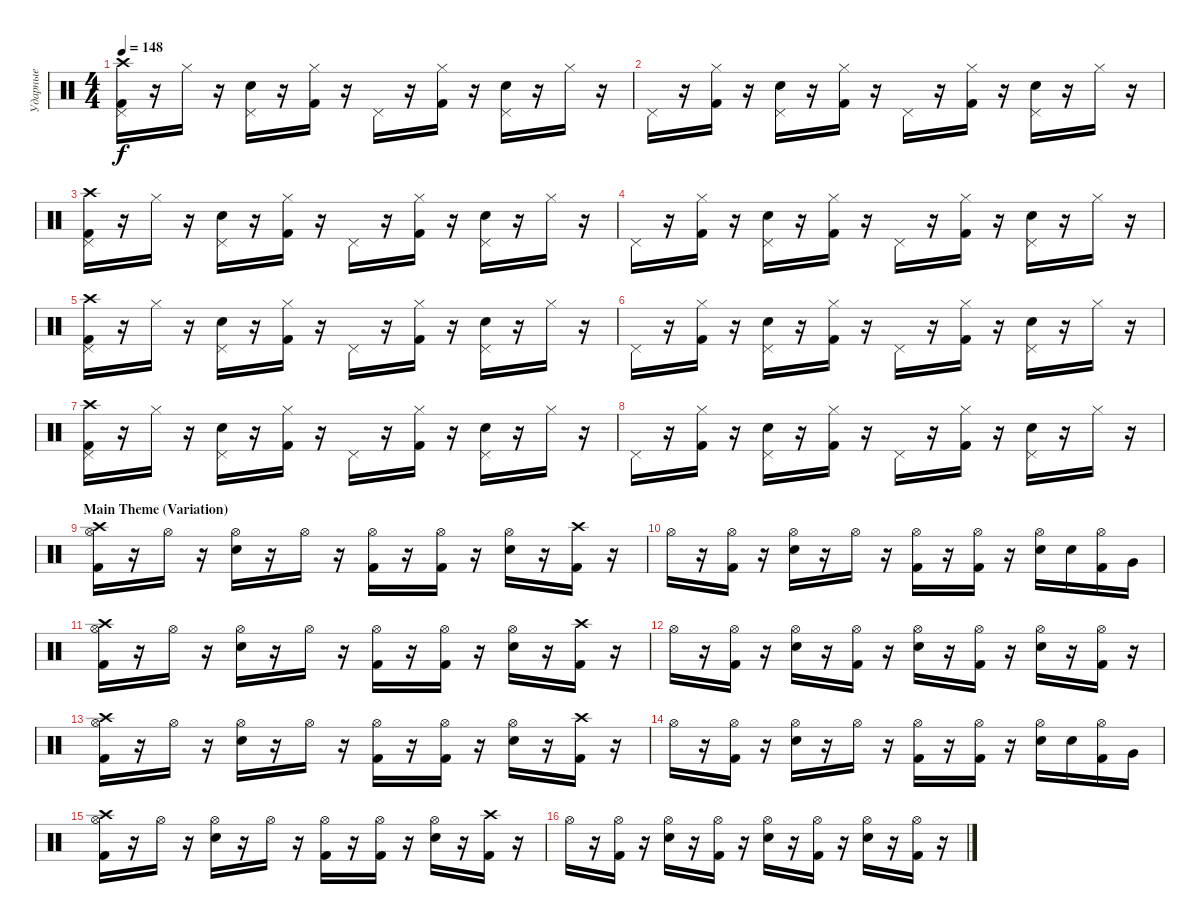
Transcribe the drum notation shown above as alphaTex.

\track ("Ударные" "Ударные") {instrument percussion}
\staff {score}
\articulation defaults
\ts (4 4)
\tempo 148
\clef neutral
\ks c
("Crash high (hit)" "Pedal Hi-Hat (hit)" "Kick (hit) 2").16{dy f} r.16 "Hi-Hat (closed)".16 r.16 ("Pedal Hi-Hat (hit)" "Electric Snare (hit)").16 r.16 ("Hi-Hat (closed)" "Kick (hit) 2").16 r.16 "Pedal Hi-Hat (hit)".16 r.16 ("Hi-Hat (closed)" "Kick (hit) 2").16 r.16 ("Pedal Hi-Hat (hit)" "Electric Snare (hit)").16 r.16 "Hi-Hat (closed)".16 r.16 |
"Pedal Hi-Hat (hit)".16 r.16 ("Hi-Hat (closed)" "Kick (hit) 2").16 r.16 ("Pedal Hi-Hat (hit)" "Electric Snare (hit)").16 r.16 ("Hi-Hat (closed)" "Kick (hit) 2").16 r.16 "Pedal Hi-Hat (hit)".16 r.16 ("Hi-Hat (closed)" "Kick (hit) 2").16 r.16 ("Pedal Hi-Hat (hit)" "Electric Snare (hit)").16 r.16 "Hi-Hat (closed)".16 r.16 |
("Crash high (hit)" "Pedal Hi-Hat (hit)" "Kick (hit) 2").16 r.16 "Hi-Hat (closed)".16 r.16 ("Pedal Hi-Hat (hit)" "Electric Snare (hit)").16 r.16 ("Hi-Hat (closed)" "Kick (hit) 2").16 r.16 "Pedal Hi-Hat (hit)".16 r.16 ("Hi-Hat (closed)" "Kick (hit) 2").16 r.16 ("Pedal Hi-Hat (hit)" "Electric Snare (hit)").16 r.16 "Hi-Hat (closed)".16 r.16 |
"Pedal Hi-Hat (hit)".16 r.16 ("Hi-Hat (closed)" "Kick (hit) 2").16 r.16 ("Pedal Hi-Hat (hit)" "Electric Snare (hit)").16 r.16 ("Hi-Hat (closed)" "Kick (hit) 2").16 r.16 "Pedal Hi-Hat (hit)".16 r.16 ("Hi-Hat (closed)" "Kick (hit) 2").16 r.16 ("Pedal Hi-Hat (hit)" "Electric Snare (hit)").16 r.16 "Hi-Hat (closed)".16 r.16 |
("Crash high (hit)" "Pedal Hi-Hat (hit)" "Kick (hit) 2").16 r.16 "Hi-Hat (closed)".16 r.16 ("Pedal Hi-Hat (hit)" "Electric Snare (hit)").16 r.16 ("Hi-Hat (closed)" "Kick (hit) 2").16 r.16 "Pedal Hi-Hat (hit)".16 r.16 ("Hi-Hat (closed)" "Kick (hit) 2").16 r.16 ("Pedal Hi-Hat (hit)" "Electric Snare (hit)").16 r.16 "Hi-Hat (closed)".16 r.16 |
"Pedal Hi-Hat (hit)".16 r.16 ("Hi-Hat (closed)" "Kick (hit) 2").16 r.16 ("Pedal Hi-Hat (hit)" "Electric Snare (hit)").16 r.16 ("Hi-Hat (closed)" "Kick (hit) 2").16 r.16 "Pedal Hi-Hat (hit)".16 r.16 ("Hi-Hat (closed)" "Kick (hit) 2").16 r.16 ("Pedal Hi-Hat (hit)" "Electric Snare (hit)").16 r.16 "Hi-Hat (closed)".16 r.16 |
("Crash high (hit)" "Pedal Hi-Hat (hit)" "Kick (hit) 2").16 r.16 "Hi-Hat (closed)".16 r.16 ("Pedal Hi-Hat (hit)" "Electric Snare (hit)").16 r.16 ("Hi-Hat (closed)" "Kick (hit) 2").16 r.16 "Pedal Hi-Hat (hit)".16 r.16 ("Hi-Hat (closed)" "Kick (hit) 2").16 r.16 ("Pedal Hi-Hat (hit)" "Electric Snare (hit)").16 r.16 "Hi-Hat (closed)".16 r.16 |
"Pedal Hi-Hat (hit)".16 r.16 ("Hi-Hat (closed)" "Kick (hit) 2").16 r.16 ("Pedal Hi-Hat (hit)" "Electric Snare (hit)").16 r.16 ("Hi-Hat (closed)" "Kick (hit) 2").16 r.16 "Pedal Hi-Hat (hit)".16 r.16 ("Hi-Hat (closed)" "Kick (hit) 2").16 r.16 ("Pedal Hi-Hat (hit)" "Electric Snare (hit)").16 r.16 "Hi-Hat (closed)".16 r.16 |
\section ("" "Main Theme (Variation)")
("Crash high (hit)" "Hi-Hat (open)" "Kick (hit) 2").16 r.16 "Hi-Hat (open)".16 r.16 ("Hi-Hat (open)" "Electric Snare (hit)").16 r.16 "Hi-Hat (open)".16 r.16 ("Hi-Hat (open)" "Kick (hit) 2").16 r.16 ("Hi-Hat (open)" "Kick (hit) 2").16 r.16 ("Hi-Hat (open)" "Electric Snare (hit)").16 r.16 ("Crash high (hit)" "Kick (hit) 2").16 r.16 |
"Hi-Hat (open)".16 r.16 ("Hi-Hat (open)" "Kick (hit) 2").16 r.16 ("Hi-Hat (open)" "Electric Snare (hit)").16 r.16 "Hi-Hat (open)".16 r.16 ("Hi-Hat (open)" "Kick (hit) 2").16 r.16 ("Hi-Hat (open)" "Kick (hit) 2").16 r.16 ("Hi-Hat (open)" "Electric Snare (hit)").16 "Electric Snare (hit)".16 ("Hi-Hat (open)" "Kick (hit) 2").16 "Very Low Tom (hit)".16 |
("Crash high (hit)" "Hi-Hat (open)" "Kick (hit) 2").16 r.16 "Hi-Hat (open)".16 r.16 ("Hi-Hat (open)" "Electric Snare (hit)").16 r.16 "Hi-Hat (open)".16 r.16 ("Hi-Hat (open)" "Kick (hit) 2").16 r.16 ("Hi-Hat (open)" "Kick (hit) 2").16 r.16 ("Hi-Hat (open)" "Electric Snare (hit)").16 r.16 ("Crash high (hit)" "Kick (hit) 2").16 r.16 |
"Hi-Hat (open)".16 r.16 ("Hi-Hat (open)" "Kick (hit) 2").16 r.16 ("Hi-Hat (open)" "Electric Snare (hit)").16 r.16 ("Hi-Hat (open)" "Kick (hit) 2").16 r.16 ("Hi-Hat (open)" "Electric Snare (hit)").16 r.16 ("Hi-Hat (open)" "Kick (hit) 2").16 r.16 ("Hi-Hat (open)" "Electric Snare (hit)").16 r.16 ("Hi-Hat (open)" "Kick (hit) 2").16 r.16 |
("Crash high (hit)" "Hi-Hat (open)" "Kick (hit) 2").16 r.16 "Hi-Hat (open)".16 r.16 ("Hi-Hat (open)" "Electric Snare (hit)").16 r.16 "Hi-Hat (open)".16 r.16 ("Hi-Hat (open)" "Kick (hit) 2").16 r.16 ("Hi-Hat (open)" "Kick (hit) 2").16 r.16 ("Hi-Hat (open)" "Electric Snare (hit)").16 r.16 ("Crash high (hit)" "Kick (hit) 2").16 r.16 |
"Hi-Hat (open)".16 r.16 ("Hi-Hat (open)" "Kick (hit) 2").16 r.16 ("Hi-Hat (open)" "Electric Snare (hit)").16 r.16 "Hi-Hat (open)".16 r.16 ("Hi-Hat (open)" "Kick (hit) 2").16 r.16 ("Hi-Hat (open)" "Kick (hit) 2").16 r.16 ("Hi-Hat (open)" "Electric Snare (hit)").16 "Electric Snare (hit)".16 ("Hi-Hat (open)" "Kick (hit) 2").16 "Very Low Tom (hit)".16 |
("Crash high (hit)" "Hi-Hat (open)" "Kick (hit) 2").16 r.16 "Hi-Hat (open)".16 r.16 ("Hi-Hat (open)" "Electric Snare (hit)").16 r.16 "Hi-Hat (open)".16 r.16 ("Hi-Hat (open)" "Kick (hit) 2").16 r.16 ("Hi-Hat (open)" "Kick (hit) 2").16 r.16 ("Hi-Hat (open)" "Electric Snare (hit)").16 r.16 ("Crash high (hit)" "Kick (hit) 2").16 r.16 |
"Hi-Hat (open)".16 r.16 ("Hi-Hat (open)" "Kick (hit) 2").16 r.16 ("Hi-Hat (open)" "Electric Snare (hit)").16 r.16 ("Hi-Hat (open)" "Kick (hit) 2").16 r.16 ("Hi-Hat (open)" "Electric Snare (hit)").16 r.16 ("Hi-Hat (open)" "Kick (hit) 2").16 r.16 ("Hi-Hat (open)" "Electric Snare (hit)").16 r.16 ("Hi-Hat (open)" "Kick (hit) 2").16 r.16
